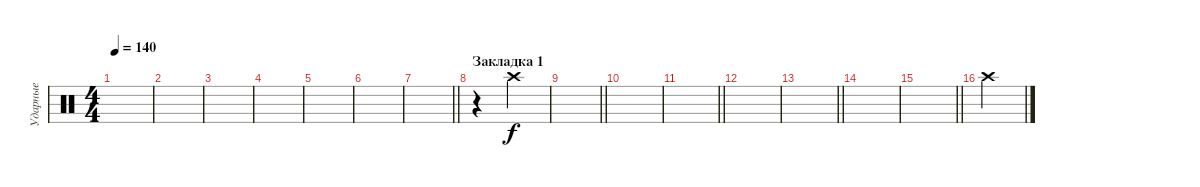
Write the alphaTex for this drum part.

\track ("Ударные" "Ударные") {instrument percussion}
\staff {score}
\articulation defaults
\ts (4 4)
\tempo 140
\clef neutral
\ks c
|
|
|
|
|
|
\barLineRight lightlight
|
\section ("" "Закладка 1")
r.4 "Crash high (hit)".4 |
\barLineRight lightlight
|
|
\barLineRight lightlight
|
|
\barLineRight lightlight
|
|
\barLineRight lightlight
|
"Crash high (hit)".4
